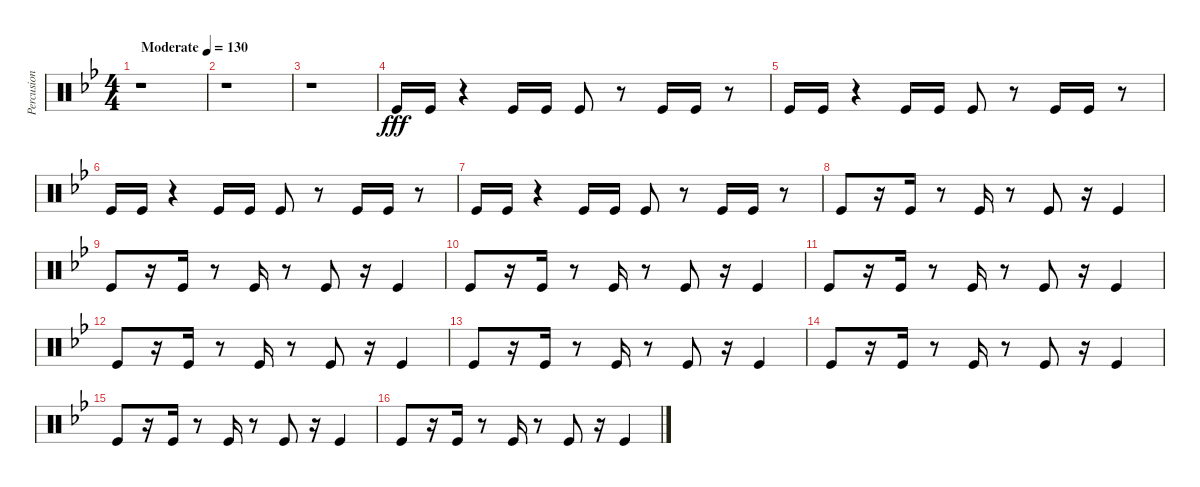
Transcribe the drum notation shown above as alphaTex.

\track ("Percusion II" "Percusion ") {instrument percussion}
\staff {score}
\articulation defaults
\ts (4 4)
\tempo (130 "Moderate")
\clef neutral
\ks gminor
r.1{dy fff} |
r.1 |
r.1 |
"Kick (hit)".16 "Kick (hit)".16 r.4 "Kick (hit)".16 "Kick (hit)".16 "Kick (hit)".8 r.8 "Kick (hit)".16 "Kick (hit)".16 r.8 |
"Kick (hit)".16 "Kick (hit)".16 r.4 "Kick (hit)".16 "Kick (hit)".16 "Kick (hit)".8 r.8 "Kick (hit)".16 "Kick (hit)".16 r.8 |
"Kick (hit)".16 "Kick (hit)".16 r.4 "Kick (hit)".16 "Kick (hit)".16 "Kick (hit)".8 r.8 "Kick (hit)".16 "Kick (hit)".16 r.8 |
"Kick (hit)".16 "Kick (hit)".16 r.4 "Kick (hit)".16 "Kick (hit)".16 "Kick (hit)".8 r.8 "Kick (hit)".16 "Kick (hit)".16 r.8 |
"Kick (hit)".8 r.16 "Kick (hit)".16 r.8 "Kick (hit)".16 r.8 "Kick (hit)".8 r.16 "Kick (hit)".4 |
"Kick (hit)".8 r.16 "Kick (hit)".16 r.8 "Kick (hit)".16 r.8 "Kick (hit)".8 r.16 "Kick (hit)".4 |
"Kick (hit)".8 r.16 "Kick (hit)".16 r.8 "Kick (hit)".16 r.8 "Kick (hit)".8 r.16 "Kick (hit)".4 |
"Kick (hit)".8 r.16 "Kick (hit)".16 r.8 "Kick (hit)".16 r.8 "Kick (hit)".8 r.16 "Kick (hit)".4 |
"Kick (hit)".8 r.16 "Kick (hit)".16 r.8 "Kick (hit)".16 r.8 "Kick (hit)".8 r.16 "Kick (hit)".4 |
"Kick (hit)".8 r.16 "Kick (hit)".16 r.8 "Kick (hit)".16 r.8 "Kick (hit)".8 r.16 "Kick (hit)".4 |
"Kick (hit)".8 r.16 "Kick (hit)".16 r.8 "Kick (hit)".16 r.8 "Kick (hit)".8 r.16 "Kick (hit)".4 |
"Kick (hit)".8 r.16 "Kick (hit)".16 r.8 "Kick (hit)".16 r.8 "Kick (hit)".8 r.16 "Kick (hit)".4 |
"Kick (hit)".8 r.16 "Kick (hit)".16 r.8 "Kick (hit)".16 r.8 "Kick (hit)".8 r.16 "Kick (hit)".4
